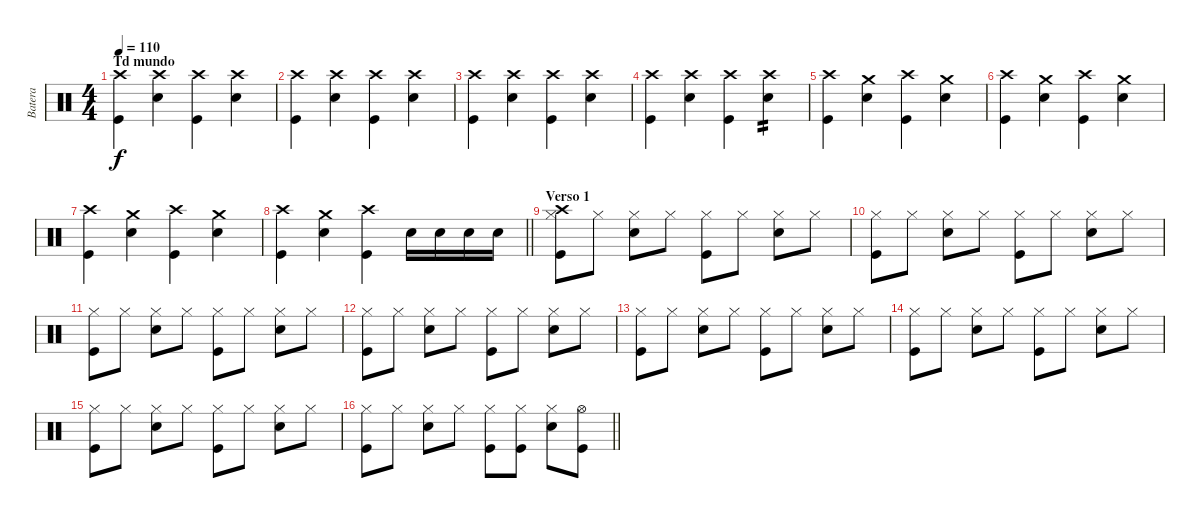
\track ("Batera" "Batera") {instrument percussion}
\staff {score}
\articulation defaults
\ts (4 4)
\section ("" "Td mundo")
\tempo 110
\clef neutral
\ks c
("Crash high (hit)" "Kick (hit)").4{dy f} ("Crash high (hit)" "Snare (hit) 2").4 ("Crash high (hit)" "Kick (hit)").4 ("Crash high (hit)" "Snare (hit) 2").4 |
("Crash high (hit)" "Kick (hit)").4 ("Crash high (hit)" "Snare (hit) 2").4 ("Crash high (hit)" "Kick (hit)").4 ("Crash high (hit)" "Snare (hit) 2").4 |
("Crash high (hit)" "Kick (hit)").4 ("Crash high (hit)" "Snare (hit) 2").4 ("Crash high (hit)" "Kick (hit)").4 ("Crash high (hit)" "Snare (hit) 2").4 |
("Crash high (hit)" "Kick (hit)").4 ("Crash high (hit)" "Snare (hit) 2").4 ("Crash high (hit)" "Kick (hit)").4 ("Crash high (hit)" "Snare (hit) 2").4{tp 2} |
("Crash high (hit)" "Kick (hit)").4 ("Crash medium (hit)" "Snare (hit) 2").4 ("Crash high (hit)" "Kick (hit)").4 ("Crash medium (hit)" "Snare (hit) 2").4 |
("Crash high (hit)" "Kick (hit)").4 ("Crash medium (hit)" "Snare (hit) 2").4 ("Crash high (hit)" "Kick (hit)").4 ("Crash medium (hit)" "Snare (hit) 2").4 |
("Crash high (hit)" "Kick (hit)").4 ("Crash medium (hit)" "Snare (hit) 2").4 ("Crash high (hit)" "Kick (hit)").4 ("Crash medium (hit)" "Snare (hit) 2").4 |
\barLineRight lightlight
("Crash high (hit)" "Kick (hit)").4 ("Crash medium (hit)" "Snare (hit) 2").4 ("Crash high (hit)" "Kick (hit)").4 "Snare (hit) 2".16 "Snare (hit) 2".16 "Snare (hit) 2".16 "Snare (hit) 2".16 |
\section ("" "Verso 1")
("Hi-Hat (closed)" "Kick (hit)" "Crash high (hit)").8 "Hi-Hat (closed)".8 ("Hi-Hat (closed)" "Snare (hit) 2").8 "Hi-Hat (closed)".8 ("Hi-Hat (closed)" "Kick (hit)").8 "Hi-Hat (closed)".8 ("Hi-Hat (closed)" "Snare (hit) 2").8 "Hi-Hat (closed)".8 |
("Hi-Hat (closed)" "Kick (hit)").8 "Hi-Hat (closed)".8 ("Hi-Hat (closed)" "Snare (hit) 2").8 "Hi-Hat (closed)".8 ("Hi-Hat (closed)" "Kick (hit)").8 "Hi-Hat (closed)".8 ("Hi-Hat (closed)" "Snare (hit) 2").8 "Hi-Hat (closed)".8 |
("Hi-Hat (closed)" "Kick (hit)").8 "Hi-Hat (closed)".8 ("Hi-Hat (closed)" "Snare (hit) 2").8 "Hi-Hat (closed)".8 ("Hi-Hat (closed)" "Kick (hit)").8 "Hi-Hat (closed)".8 ("Hi-Hat (closed)" "Snare (hit) 2").8 "Hi-Hat (closed)".8 |
("Hi-Hat (closed)" "Kick (hit)").8 "Hi-Hat (closed)".8 ("Hi-Hat (closed)" "Snare (hit) 2").8 "Hi-Hat (closed)".8 ("Hi-Hat (closed)" "Kick (hit)").8 "Hi-Hat (closed)".8 ("Hi-Hat (closed)" "Snare (hit) 2").8 "Hi-Hat (closed)".8 |
("Hi-Hat (closed)" "Kick (hit)").8 "Hi-Hat (closed)".8 ("Hi-Hat (closed)" "Snare (hit) 2").8 "Hi-Hat (closed)".8 ("Hi-Hat (closed)" "Kick (hit)").8 "Hi-Hat (closed)".8 ("Hi-Hat (closed)" "Snare (hit) 2").8 "Hi-Hat (closed)".8 |
("Hi-Hat (closed)" "Kick (hit)").8 "Hi-Hat (closed)".8 ("Hi-Hat (closed)" "Snare (hit) 2").8 "Hi-Hat (closed)".8 ("Hi-Hat (closed)" "Kick (hit)").8 "Hi-Hat (closed)".8 ("Hi-Hat (closed)" "Snare (hit) 2").8 "Hi-Hat (closed)".8 |
("Hi-Hat (closed)" "Kick (hit)").8 "Hi-Hat (closed)".8 ("Hi-Hat (closed)" "Snare (hit) 2").8 "Hi-Hat (closed)".8 ("Hi-Hat (closed)" "Kick (hit)").8 "Hi-Hat (closed)".8 ("Hi-Hat (closed)" "Snare (hit) 2").8 "Hi-Hat (closed)".8 |
\barLineRight lightlight
("Hi-Hat (closed)" "Kick (hit)").8 "Hi-Hat (closed)".8 ("Hi-Hat (closed)" "Snare (hit) 2").8 "Hi-Hat (closed)".8 ("Hi-Hat (closed)" "Kick (hit)").8 ("Hi-Hat (closed)" "Kick (hit)").8 ("Hi-Hat (closed)" "Snare (hit) 2").8 ("Hi-Hat (open)" "Kick (hit)").8
